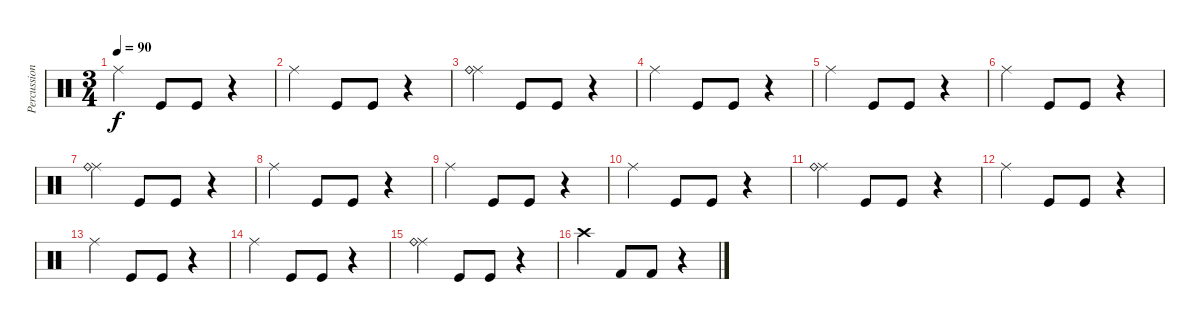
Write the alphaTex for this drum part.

\track ("Percussion" "Percussion") {instrument percussion}
\staff {score}
\articulation defaults
\ts (3 4)
\tempo 90
\clef neutral
\ks c "Ride (middle)".4{dy f} "Kick (hit)".8 "Kick (hit)".8
r.4 |
"Ride (middle)".4 "Kick (hit)".8 "Kick (hit)".8 r.4 |
("Ride (middle)" "Ride (bell)").4 "Kick (hit)".8 "Kick (hit)".8 r.4 |
"Ride (middle)".4 "Kick (hit)".8 "Kick (hit)".8 r.4 |
"Ride (middle)".4 "Kick (hit)".8 "Kick (hit)".8 r.4 |
"Ride (middle)".4 "Kick (hit)".8 "Kick (hit)".8 r.4 |
("Ride (middle)" "Ride (bell)").4 "Kick (hit)".8 "Kick (hit)".8 r.4 |
"Ride (middle)".4 "Kick (hit)".8 "Kick (hit)".8 r.4 |
"Ride (middle)".4 "Kick (hit)".8 "Kick (hit)".8 r.4 |
"Ride (middle)".4 "Kick (hit)".8 "Kick (hit)".8 r.4 |
("Ride (middle)" "Ride (bell)").4 "Kick (hit)".8 "Kick (hit)".8 r.4 |
"Ride (middle)".4 "Kick (hit)".8 "Kick (hit)".8 r.4 |
"Ride (middle)".4 "Kick (hit)".8 "Kick (hit)".8 r.4 |
"Ride (middle)".4 "Kick (hit)".8 "Kick (hit)".8 r.4 |
("Ride (middle)" "Ride (bell)").4 "Kick (hit)".8 "Kick (hit)".8 r.4 |
"Crash high (hit)".4 "Kick (hit) 2".8 "Kick (hit) 2".8 r.4
